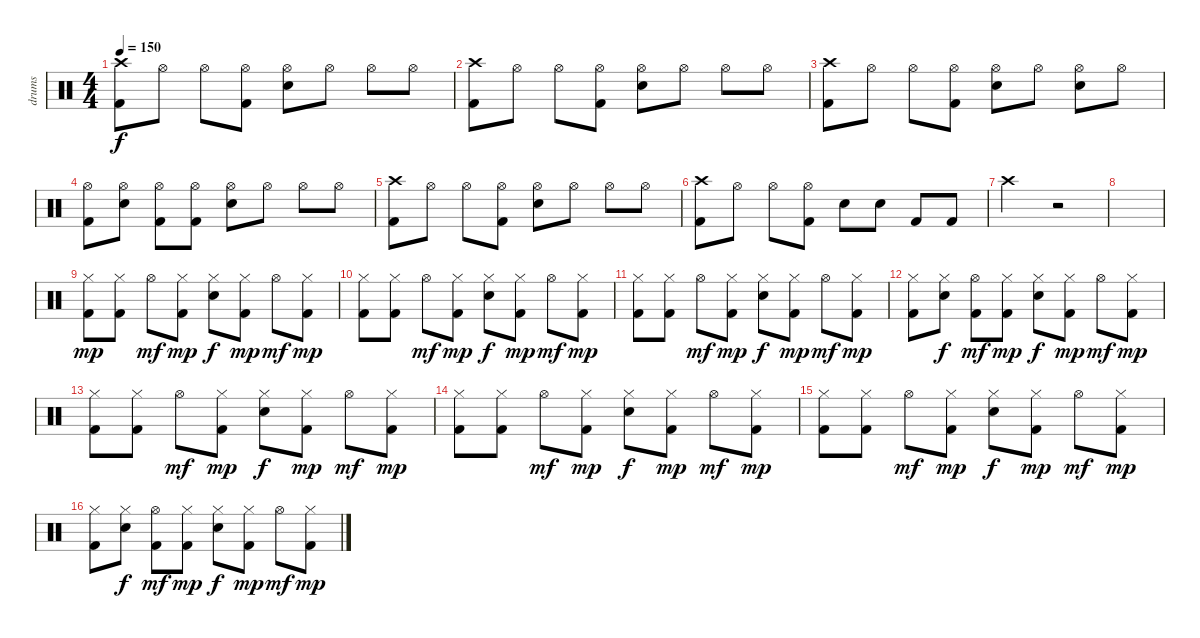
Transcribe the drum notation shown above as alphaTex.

\track ("drums" "drums") {instrument percussion}
\staff {score}
\articulation defaults
\ts (4 4)
\tempo 150
\clef neutral
\ks c
("Crash high (hit)" "Kick (hit) 2").8{dy f} "Hi-Hat (open)".8 "Hi-Hat (open)".8 ("Hi-Hat (open)" "Kick (hit) 2").8 ("Hi-Hat (open)" "Electric Snare (hit)").8 "Hi-Hat (open)".8 "Hi-Hat (open)".8 "Hi-Hat (open)".8 |
("Crash high (hit)" "Kick (hit) 2").8 "Hi-Hat (open)".8 "Hi-Hat (open)".8 ("Hi-Hat (open)" "Kick (hit) 2").8 ("Hi-Hat (open)" "Electric Snare (hit)").8 "Hi-Hat (open)".8 "Hi-Hat (open)".8 "Hi-Hat (open)".8 |
("Crash high (hit)" "Kick (hit) 2").8 "Hi-Hat (open)".8 "Hi-Hat (open)".8 ("Hi-Hat (open)" "Kick (hit) 2").8 ("Hi-Hat (open)" "Electric Snare (hit)").8 "Hi-Hat (open)".8 ("Hi-Hat (open)" "Electric Snare (hit)").8 "Hi-Hat (open)".8 |
("Hi-Hat (open)" "Kick (hit) 2").8 ("Hi-Hat (open)" "Electric Snare (hit)").8 ("Hi-Hat (open)" "Kick (hit) 2").8 ("Hi-Hat (open)" "Kick (hit) 2").8 ("Hi-Hat (open)" "Electric Snare (hit)").8 "Hi-Hat (open)".8 "Hi-Hat (open)".8 "Hi-Hat (open)".8 |
("Crash high (hit)" "Kick (hit) 2").8 "Hi-Hat (open)".8 "Hi-Hat (open)".8 ("Hi-Hat (open)" "Kick (hit) 2").8 ("Hi-Hat (open)" "Electric Snare (hit)").8 "Hi-Hat (open)".8 "Hi-Hat (open)".8 "Hi-Hat (open)".8 |
("Crash high (hit)" "Kick (hit) 2").8 "Hi-Hat (open)".8 "Hi-Hat (open)".8 ("Hi-Hat (open)" "Kick (hit) 2").8 "Electric Snare (hit)".8 "Electric Snare (hit)".8 "Kick (hit) 2".8 "Kick (hit) 2".8 |
"Crash high (hit)".2 r.2 |
|
("Hi-Hat (closed)" "Kick (hit) 2").8{dy mp} ("Hi-Hat (closed)" "Kick (hit) 2").8 "Hi-Hat (open)".8{dy mf} ("Hi-Hat (closed)" "Kick (hit) 2").8{dy mp} ("Hi-Hat (closed)" "Electric Snare (hit)").8{dy f} ("Hi-Hat (closed)" "Kick (hit) 2").8{dy mp} "Hi-Hat (open)".8{dy mf} ("Hi-Hat (closed)" "Kick (hit) 2").8{dy mp} |
("Hi-Hat (closed)" "Kick (hit) 2").8 ("Hi-Hat (closed)" "Kick (hit) 2").8 "Hi-Hat (open)".8{dy mf} ("Hi-Hat (closed)" "Kick (hit) 2").8{dy mp} ("Hi-Hat (closed)" "Electric Snare (hit)").8{dy f} ("Hi-Hat (closed)" "Kick (hit) 2").8{dy mp} "Hi-Hat (open)".8{dy mf} ("Hi-Hat (closed)" "Kick (hit) 2").8{dy mp} |
("Hi-Hat (closed)" "Kick (hit) 2").8 ("Hi-Hat (closed)" "Kick (hit) 2").8 "Hi-Hat (open)".8{dy mf} ("Hi-Hat (closed)" "Kick (hit) 2").8{dy mp} ("Hi-Hat (closed)" "Electric Snare (hit)").8{dy f} ("Hi-Hat (closed)" "Kick (hit) 2").8{dy mp} "Hi-Hat (open)".8{dy mf} ("Hi-Hat (closed)" "Kick (hit) 2").8{dy mp} |
("Hi-Hat (closed)" "Kick (hit) 2").8 ("Hi-Hat (closed)" "Electric Snare (hit)").8{dy f} ("Hi-Hat (open)" "Kick (hit) 2").8{dy mf} ("Hi-Hat (closed)" "Kick (hit) 2").8{dy mp} ("Hi-Hat (closed)" "Electric Snare (hit)").8{dy f} ("Hi-Hat (closed)" "Kick (hit) 2").8{dy mp} "Hi-Hat (open)".8{dy mf} ("Hi-Hat (closed)" "Kick (hit) 2").8{dy mp} |
("Hi-Hat (closed)" "Kick (hit) 2").8 ("Hi-Hat (closed)" "Kick (hit) 2").8 "Hi-Hat (open)".8{dy mf} ("Hi-Hat (closed)" "Kick (hit) 2").8{dy mp} ("Hi-Hat (closed)" "Electric Snare (hit)").8{dy f} ("Hi-Hat (closed)" "Kick (hit) 2").8{dy mp} "Hi-Hat (open)".8{dy mf} ("Hi-Hat (closed)" "Kick (hit) 2").8{dy mp} |
("Hi-Hat (closed)" "Kick (hit) 2").8 ("Hi-Hat (closed)" "Kick (hit) 2").8 "Hi-Hat (open)".8{dy mf} ("Hi-Hat (closed)" "Kick (hit) 2").8{dy mp} ("Hi-Hat (closed)" "Electric Snare (hit)").8{dy f} ("Hi-Hat (closed)" "Kick (hit) 2").8{dy mp} "Hi-Hat (open)".8{dy mf} ("Hi-Hat (closed)" "Kick (hit) 2").8{dy mp} |
("Hi-Hat (closed)" "Kick (hit) 2").8 ("Hi-Hat (closed)" "Kick (hit) 2").8 "Hi-Hat (open)".8{dy mf} ("Hi-Hat (closed)" "Kick (hit) 2").8{dy mp} ("Hi-Hat (closed)" "Electric Snare (hit)").8{dy f} ("Hi-Hat (closed)" "Kick (hit) 2").8{dy mp} "Hi-Hat (open)".8{dy mf} ("Hi-Hat (closed)" "Kick (hit) 2").8{dy mp} |
("Hi-Hat (closed)" "Kick (hit) 2").8 ("Hi-Hat (closed)" "Electric Snare (hit)").8{dy f} ("Hi-Hat (open)" "Kick (hit) 2").8{dy mf} ("Hi-Hat (closed)" "Kick (hit) 2").8{dy mp} ("Hi-Hat (closed)" "Electric Snare (hit)").8{dy f} ("Hi-Hat (closed)" "Kick (hit) 2").8{dy mp} "Hi-Hat (open)".8{dy mf} ("Hi-Hat (closed)" "Kick (hit) 2").8{dy mp}
